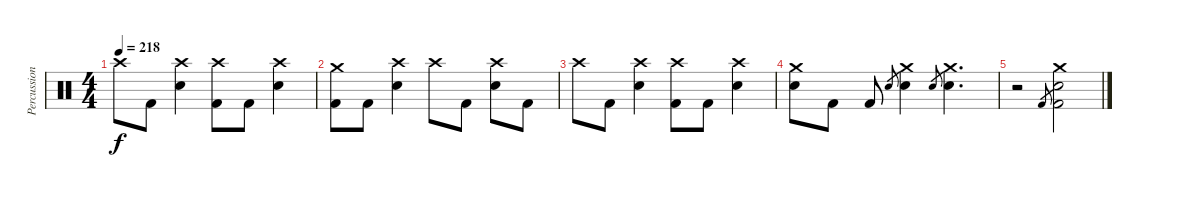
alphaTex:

\track ("Percussions" "Percussion") {instrument percussion}
\staff {score}
\articulation defaults
\ts (4 4)
\tempo 218
\clef neutral
\ks c "Crash high (hit)".8{dy f} "Kick (hit) 2".8
("Crash high (hit)" "Electric Snare (hit)").4 ("Crash high (hit)" "Kick (hit) 2").8 "Kick (hit) 2".8 ("Crash high (hit)" "Electric Snare (hit)").4 |
("Crash medium (hit)" "Kick (hit) 2").8 "Kick (hit) 2".8 ("Crash high (hit)" "Electric Snare (hit)").4 "Crash high (hit)".8 "Kick (hit) 2".8 ("Crash high (hit)" "Electric Snare (hit)").8 "Kick (hit) 2".8 |
"Crash high (hit)".8 "Kick (hit) 2".8 ("Crash high (hit)" "Electric Snare (hit)").4 ("Crash high (hit)" "Kick (hit) 2").8 "Kick (hit) 2".8 ("Crash high (hit)" "Electric Snare (hit)").4 |
("Crash medium (hit)" "Electric Snare (hit)").8 "Kick (hit) 2".8 "Kick (hit) 2".8 "Electric Snare (hit)".8{gr} ("Crash medium (hit)" "Electric Snare (hit)").4 "Electric Snare (hit)".8{gr} ("Crash medium (hit)" "Electric Snare (hit)").4{d} |
r.2 "Kick (hit) 2".8{gr} ("Crash medium (hit)" "Electric Snare (hit)" "Kick (hit) 2").2
